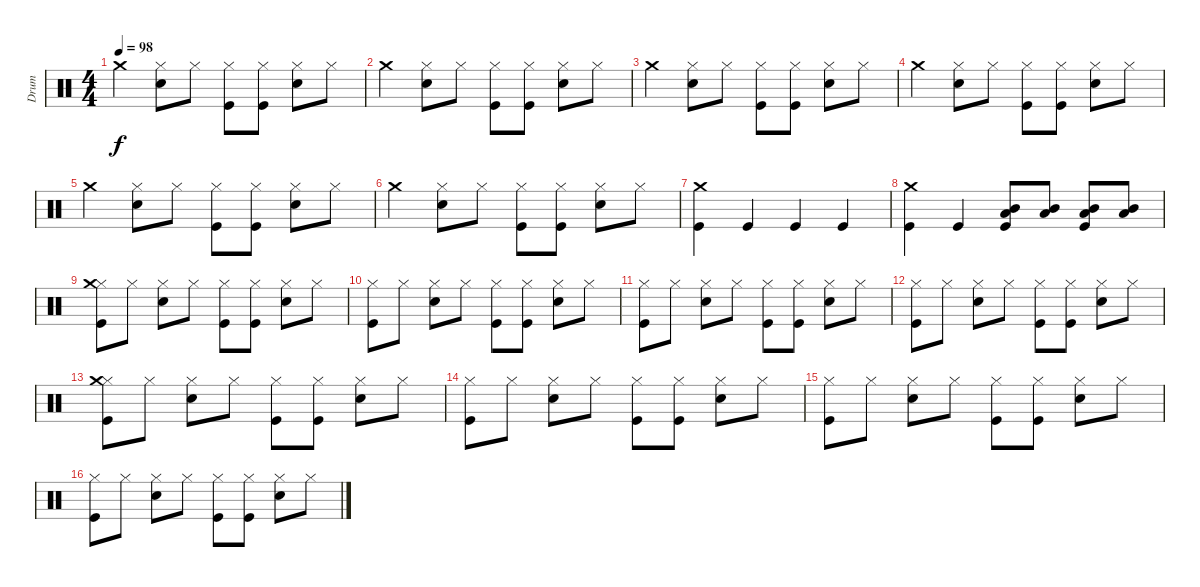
\track ("Drum" "Drum") {instrument percussion}
\staff {score}
\articulation defaults
\ts (4 4)
\tempo 98
\clef neutral
\ks c "Crash medium (hit)".4{dy f}
("Hi-Hat (closed)" "Electric Snare (hit)").8 "Hi-Hat (closed)".8 ("Hi-Hat (closed)" "Kick (hit)").8 ("Hi-Hat (closed)" "Kick (hit)").8 ("Hi-Hat (closed)" "Electric Snare (hit)").8 "Hi-Hat (closed)".8 |
"Crash medium (hit)".4 ("Hi-Hat (closed)" "Electric Snare (hit)").8 "Hi-Hat (closed)".8 ("Hi-Hat (closed)" "Kick (hit)").8 ("Hi-Hat (closed)" "Kick (hit)").8 ("Hi-Hat (closed)" "Electric Snare (hit)").8 "Hi-Hat (closed)".8 |
"Crash medium (hit)".4 ("Hi-Hat (closed)" "Electric Snare (hit)").8 "Hi-Hat (closed)".8 ("Hi-Hat (closed)" "Kick (hit)").8 ("Hi-Hat (closed)" "Kick (hit)").8 ("Hi-Hat (closed)" "Electric Snare (hit)").8 "Hi-Hat (closed)".8 |
"Crash medium (hit)".4 ("Hi-Hat (closed)" "Electric Snare (hit)").8 "Hi-Hat (closed)".8 ("Hi-Hat (closed)" "Kick (hit)").8 ("Hi-Hat (closed)" "Kick (hit)").8 ("Hi-Hat (closed)" "Electric Snare (hit)").8 "Hi-Hat (closed)".8 |
"Crash medium (hit)".4 ("Hi-Hat (closed)" "Electric Snare (hit)").8 "Hi-Hat (closed)".8 ("Hi-Hat (closed)" "Kick (hit)").8 ("Hi-Hat (closed)" "Kick (hit)").8 ("Hi-Hat (closed)" "Electric Snare (hit)").8 "Hi-Hat (closed)".8 |
"Crash medium (hit)".4 ("Hi-Hat (closed)" "Electric Snare (hit)").8 "Hi-Hat (closed)".8 ("Hi-Hat (closed)" "Kick (hit)").8 ("Hi-Hat (closed)" "Kick (hit)").8 ("Hi-Hat (closed)" "Electric Snare (hit)").8 "Hi-Hat (closed)".8 |
("Crash medium (hit)" "Kick (hit)").4 "Kick (hit)".4 "Kick (hit)".4 "Kick (hit)".4 |
("Crash medium (hit)" "Kick (hit)").4 "Kick (hit)".4 ("Kick (hit)" "Low Tom (hit)" "Mid Tom (hit)").8 ("Low Tom (hit)" "Mid Tom (hit)").8 ("Kick (hit)" "Low Tom (hit)" "Mid Tom (hit)").8 ("Low Tom (hit)" "Mid Tom (hit)").8 |
("Hi-Hat (closed)" "Kick (hit)" "Crash medium (hit)").8 "Hi-Hat (closed)".8 ("Hi-Hat (closed)" "Snare (hit) 2").8 "Hi-Hat (closed)".8 ("Hi-Hat (closed)" "Kick (hit)").8 ("Hi-Hat (closed)" "Kick (hit)").8 ("Hi-Hat (closed)" "Snare (hit) 2").8 "Hi-Hat (closed)".8 |
("Hi-Hat (closed)" "Kick (hit)").8 "Hi-Hat (closed)".8 ("Hi-Hat (closed)" "Snare (hit) 2").8 "Hi-Hat (closed)".8 ("Hi-Hat (closed)" "Kick (hit)").8 ("Hi-Hat (closed)" "Kick (hit)").8 ("Hi-Hat (closed)" "Snare (hit) 2").8 "Hi-Hat (closed)".8 |
("Hi-Hat (closed)" "Kick (hit)").8 "Hi-Hat (closed)".8 ("Hi-Hat (closed)" "Snare (hit) 2").8 "Hi-Hat (closed)".8 ("Hi-Hat (closed)" "Kick (hit)").8 ("Hi-Hat (closed)" "Kick (hit)").8 ("Hi-Hat (closed)" "Snare (hit) 2").8 "Hi-Hat (closed)".8 |
("Hi-Hat (closed)" "Kick (hit)").8 "Hi-Hat (closed)".8 ("Hi-Hat (closed)" "Snare (hit) 2").8 "Hi-Hat (closed)".8 ("Hi-Hat (closed)" "Kick (hit)").8 ("Hi-Hat (closed)" "Kick (hit)").8 ("Hi-Hat (closed)" "Snare (hit) 2").8 "Hi-Hat (closed)".8 |
("Hi-Hat (closed)" "Kick (hit)" "Crash medium (hit)").8 "Hi-Hat (closed)".8 ("Hi-Hat (closed)" "Snare (hit) 2").8 "Hi-Hat (closed)".8 ("Hi-Hat (closed)" "Kick (hit)").8 ("Hi-Hat (closed)" "Kick (hit)").8 ("Hi-Hat (closed)" "Snare (hit) 2").8 "Hi-Hat (closed)".8 |
("Hi-Hat (closed)" "Kick (hit)").8 "Hi-Hat (closed)".8 ("Hi-Hat (closed)" "Snare (hit) 2").8 "Hi-Hat (closed)".8 ("Hi-Hat (closed)" "Kick (hit)").8 ("Hi-Hat (closed)" "Kick (hit)").8 ("Hi-Hat (closed)" "Snare (hit) 2").8 "Hi-Hat (closed)".8 |
("Hi-Hat (closed)" "Kick (hit)").8 "Hi-Hat (closed)".8 ("Hi-Hat (closed)" "Snare (hit) 2").8 "Hi-Hat (closed)".8 ("Hi-Hat (closed)" "Kick (hit)").8 ("Hi-Hat (closed)" "Kick (hit)").8 ("Hi-Hat (closed)" "Snare (hit) 2").8 "Hi-Hat (closed)".8 |
("Hi-Hat (closed)" "Kick (hit)").8 "Hi-Hat (closed)".8 ("Hi-Hat (closed)" "Snare (hit) 2").8 "Hi-Hat (closed)".8 ("Hi-Hat (closed)" "Kick (hit)").8 ("Hi-Hat (closed)" "Kick (hit)").8 ("Hi-Hat (closed)" "Snare (hit) 2").8 "Hi-Hat (closed)".8
